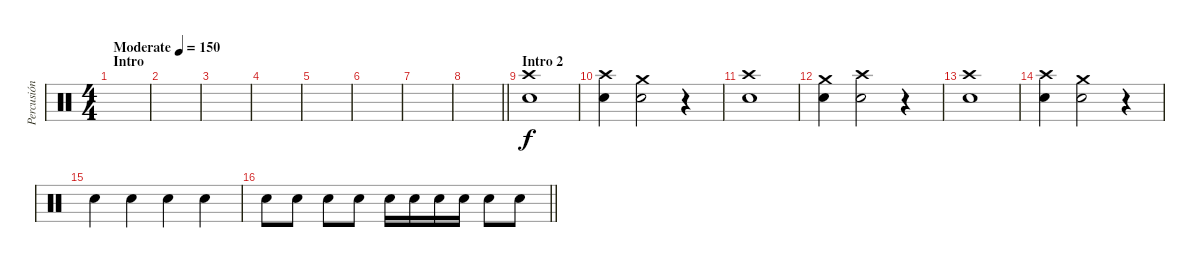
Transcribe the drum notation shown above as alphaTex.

\track ("Percusión" "Percusión") {instrument percussion}
\staff {score}
\articulation defaults
\ts (4 4)
\section ("" "Intro")
\tempo (150 "Moderate")
\clef neutral
\ks c
|
|
|
|
|
|
|
\barLineRight lightlight
|
\section ("" "Intro 2")
("Crash high (hit)" "Snare (hit) 2").1 |
("Crash high (hit)" "Snare (hit) 2").4 ("Crash medium (hit)" "Snare (hit) 2").2 r.4 |
("Crash high (hit)" "Snare (hit) 2").1 |
("Crash medium (hit)" "Snare (hit) 2").4 ("Crash high (hit)" "Snare (hit) 2").2 r.4 |
("Crash high (hit)" "Snare (hit) 2").1 |
("Crash high (hit)" "Snare (hit) 2").4 ("Crash medium (hit)" "Snare (hit) 2").2 r.4 |
"Snare (hit) 2".4 "Snare (hit) 2".4 "Snare (hit) 2".4 "Snare (hit) 2".4 |
\barLineRight lightlight "Snare (hit) 2".8 "Snare (hit) 2".8 "Snare (hit) 2".8 "Snare (hit) 2".8 "Snare (hit) 2".16 "Snare (hit) 2".16 "Snare (hit) 2".16 "Snare (hit) 2".16 "Snare (hit) 2".8 "Snare (hit) 2".8
